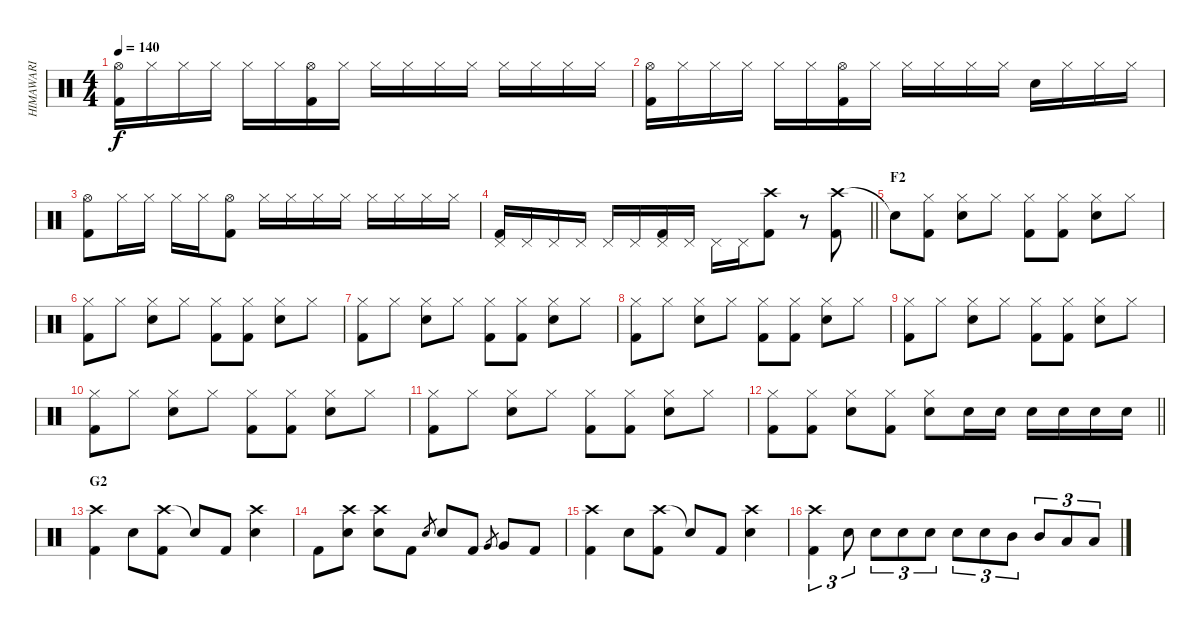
\track ("HIMAWARI" "HIMAWARI") {instrument percussion}
\staff {score}
\articulation defaults
\ts (4 4)
\tempo 140
\clef neutral
\ks c
("Hi-Hat (open)" "Kick (hit) 2").16{dy f} "Hi-Hat (closed)".16 "Hi-Hat (closed)".16 "Hi-Hat (closed)".16 "Hi-Hat (closed)".16 "Hi-Hat (closed)".16 ("Hi-Hat (open)" "Kick (hit) 2").16 "Hi-Hat (closed)".16 "Hi-Hat (closed)".16 "Hi-Hat (closed)".16 "Hi-Hat (closed)".16 "Hi-Hat (closed)".16 "Hi-Hat (closed)".16 "Hi-Hat (closed)".16 "Hi-Hat (closed)".16 "Hi-Hat (closed)".16 |
("Hi-Hat (open)" "Kick (hit) 2").16 "Hi-Hat (closed)".16 "Hi-Hat (closed)".16 "Hi-Hat (closed)".16 "Hi-Hat (closed)".16 "Hi-Hat (closed)".16 ("Hi-Hat (open)" "Kick (hit) 2").16 "Hi-Hat (closed)".16 "Hi-Hat (closed)".16 "Hi-Hat (closed)".16 "Hi-Hat (closed)".16 "Hi-Hat (closed)".16 "Snare (hit) 2".16 "Hi-Hat (closed)".16 "Hi-Hat (closed)".16 "Hi-Hat (closed)".16 |
("Hi-Hat (open)" "Kick (hit) 2").8 "Hi-Hat (closed)".16 "Hi-Hat (closed)".16 "Hi-Hat (closed)".16 "Hi-Hat (closed)".16 ("Hi-Hat (open)" "Kick (hit) 2").8 "Hi-Hat (closed)".16 "Hi-Hat (closed)".16 "Hi-Hat (closed)".16 "Hi-Hat (closed)".16 "Hi-Hat (closed)".16 "Hi-Hat (closed)".16 "Hi-Hat (closed)".16 "Hi-Hat (closed)".16 |
\barLineRight lightlight
("Pedal Hi-Hat (hit)" "Kick (hit) 2").16 "Pedal Hi-Hat (hit)".16 "Pedal Hi-Hat (hit)".16 "Pedal Hi-Hat (hit)".16 "Pedal Hi-Hat (hit)".16 "Pedal Hi-Hat (hit)".16 ("Pedal Hi-Hat (hit)" "Kick (hit) 2").16 "Pedal Hi-Hat (hit)".16 "Pedal Hi-Hat (hit)".16 "Pedal Hi-Hat (hit)".16 ("Crash high (hit)" "Kick (hit) 2").8 r.8 ("Crash high (hit)" "Kick (hit) 2").8 |
\section ("" "F2")
"Snare (hit)"{t}.8 ("Hi-Hat (closed)" "Kick (hit) 2").8 ("Hi-Hat (closed)" "Snare (hit) 2").8 "Hi-Hat (closed)".8 ("Hi-Hat (closed)" "Kick (hit) 2").8 ("Hi-Hat (closed)" "Kick (hit) 2").8 ("Hi-Hat (closed)" "Snare (hit) 2").8 "Hi-Hat (closed)".8 |
("Hi-Hat (closed)" "Kick (hit) 2").8 "Hi-Hat (closed)".8 ("Hi-Hat (closed)" "Snare (hit) 2").8 "Hi-Hat (closed)".8 ("Hi-Hat (closed)" "Kick (hit) 2").8 ("Hi-Hat (closed)" "Kick (hit) 2").8 ("Hi-Hat (closed)" "Snare (hit) 2").8 "Hi-Hat (closed)".8 |
("Hi-Hat (closed)" "Kick (hit) 2").8 "Hi-Hat (closed)".8 ("Hi-Hat (closed)" "Snare (hit) 2").8 "Hi-Hat (closed)".8 ("Hi-Hat (closed)" "Kick (hit) 2").8 ("Hi-Hat (closed)" "Kick (hit) 2").8 ("Hi-Hat (closed)" "Snare (hit) 2").8 "Hi-Hat (closed)".8 |
("Hi-Hat (closed)" "Kick (hit) 2").8 "Hi-Hat (closed)".8 ("Hi-Hat (closed)" "Snare (hit) 2").8 "Hi-Hat (closed)".8 ("Hi-Hat (closed)" "Kick (hit) 2").8 ("Hi-Hat (closed)" "Kick (hit) 2").8 ("Hi-Hat (closed)" "Snare (hit) 2").8 "Hi-Hat (closed)".8 |
("Hi-Hat (closed)" "Kick (hit) 2").8 "Hi-Hat (closed)".8 ("Hi-Hat (closed)" "Snare (hit) 2").8 "Hi-Hat (closed)".8 ("Hi-Hat (closed)" "Kick (hit) 2").8 ("Hi-Hat (closed)" "Kick (hit) 2").8 ("Hi-Hat (closed)" "Snare (hit) 2").8 "Hi-Hat (closed)".8 |
("Hi-Hat (closed)" "Kick (hit) 2").8 "Hi-Hat (closed)".8 ("Hi-Hat (closed)" "Snare (hit) 2").8 "Hi-Hat (closed)".8 ("Hi-Hat (closed)" "Kick (hit) 2").8 ("Hi-Hat (closed)" "Kick (hit) 2").8 ("Hi-Hat (closed)" "Snare (hit) 2").8 "Hi-Hat (closed)".8 |
("Hi-Hat (closed)" "Kick (hit) 2").8 "Hi-Hat (closed)".8 ("Hi-Hat (closed)" "Snare (hit) 2").8 "Hi-Hat (closed)".8 ("Hi-Hat (closed)" "Kick (hit) 2").8 ("Hi-Hat (closed)" "Kick (hit) 2").8 ("Hi-Hat (closed)" "Snare (hit) 2").8 "Hi-Hat (closed)".8 |
\barLineRight lightlight
("Hi-Hat (closed)" "Kick (hit) 2").8 ("Hi-Hat (closed)" "Kick (hit) 2").8 ("Hi-Hat (closed)" "Snare (hit) 2").8 ("Hi-Hat (closed)" "Kick (hit) 2").8 ("Hi-Hat (closed)" "Snare (hit) 2").8 "Snare (hit) 2".16 "Snare (hit) 2".16 "Snare (hit) 2".16 "Snare (hit) 2".16 "Snare (hit) 2".16 "Snare (hit) 2".16 |
\section ("" "G2")
("Crash high (hit)" "Kick (hit) 2").4 "Snare (hit) 2".8 ("Crash high (hit)" "Kick (hit) 2").8 "Snare (hit)"{t}.8 "Kick (hit) 2".8 ("Crash high (hit)" "Snare (hit) 2").4 |
"Kick (hit) 2".8 ("Crash high (hit)" "Snare (hit) 2").8 ("Crash high (hit)" "Snare (hit) 2").8 "Kick (hit) 2".8 "Snare (hit) 2".8{gr} "Snare (hit) 2".8 "Kick (hit) 2".8 "Very Low Tom (hit)".8{gr} "Very Low Tom (hit)".8 "Kick (hit) 2".8 |
("Crash high (hit)" "Kick (hit) 2").4 "Snare (hit) 2".8 ("Crash high (hit)" "Kick (hit) 2").8 "Snare (hit)"{t}.8 "Kick (hit) 2".8 ("Crash high (hit)" "Snare (hit) 2").4 |
("Crash high (hit)" "Kick (hit) 2").4{tu (3 2)} "Snare (hit) 2".8{tu (3 2)} "Snare (hit) 2".8{tu (3 2)} "Snare (hit) 2".8{tu (3 2)} "Snare (hit) 2".8{tu (3 2)} "Snare (hit) 2".8{tu (3 2)} "Snare (hit) 2".8{tu (3 2)} "Mid Tom (hit)".8{tu (3 2)} "Mid Tom (hit)".8{tu (3 2)} "Low Tom (hit)".8{tu (3 2)} "Low Tom (hit)".8{tu (3 2)}
